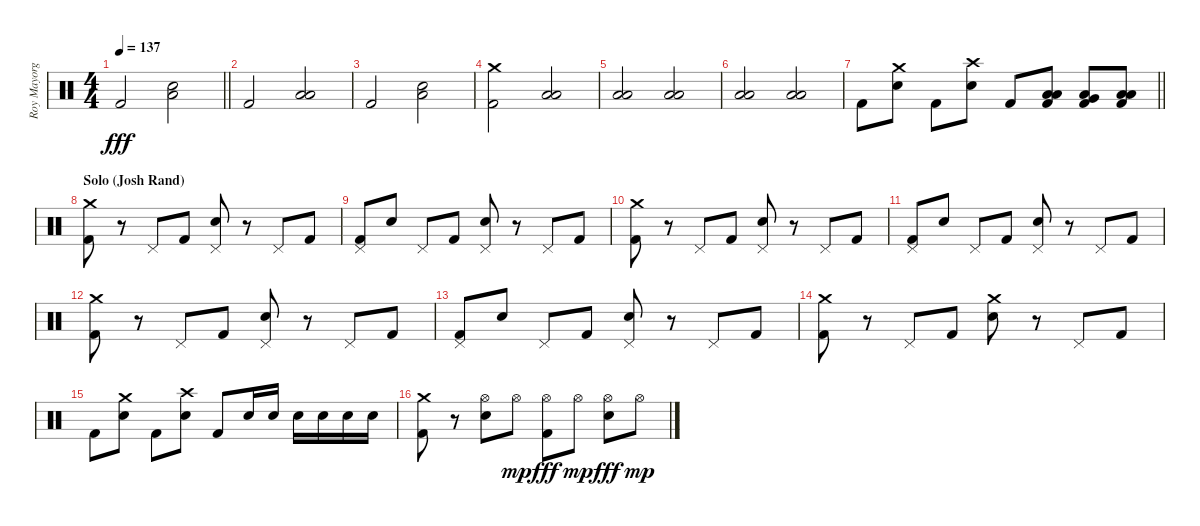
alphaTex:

\track ("Roy Mayorga (Drums)" "Roy Mayorg") {instrument percussion}
\staff {score}
\articulation defaults
\ts (4 4)
\tempo 137
\clef neutral
\barLineRight lightlight
\ks c "Kick (hit) 2".2{dy fff}
("Low Tom (hit)" "Electric Snare (hit)").2 |
"Kick (hit) 2".2 ("Low Tom (hit)" "Low Floor Tom (hit)").2 |
"Kick (hit) 2".2 ("Low Tom (hit)" "Electric Snare (hit)").2 |
("Crash medium (hit)" "Kick (hit) 2").2 ("Low Tom (hit)" "Low Floor Tom (hit)").2 |
("Low Tom (hit)" "Low Floor Tom (hit)").2 ("Low Tom (hit)" "Low Floor Tom (hit)").2 |
("Low Tom (hit)" "Low Floor Tom (hit)").2 ("Low Tom (hit)" "Low Floor Tom (hit)").2 |
\barLineRight lightlight "Kick (hit) 2".8
("Crash medium (hit)" "Electric Snare (hit)").8 "Kick (hit) 2".8 ("Crash high (hit)" "Electric Snare (hit)").8 "Kick (hit) 2".8 ("Low Tom (hit)" "Low Floor Tom (hit)" "Kick (hit) 2").8 ("Very Low Tom (hit)" "Low Floor Tom (hit)" "Kick (hit) 2").8 ("Low Floor Tom (hit)" "Low Floor Tom (hit)" "Kick (hit) 2").8 |
\section ("" "Solo (Josh Rand)")
("Crash medium (hit)" "Kick (hit) 2").8 r.8 "Pedal Hi-Hat (hit)".8 "Kick (hit) 2".8 ("Pedal Hi-Hat (hit)" "Electric Snare (hit)").8 r.8 "Pedal Hi-Hat (hit)".8 "Kick (hit) 2".8 |
("Pedal Hi-Hat (hit)" "Kick (hit) 2").8 "Electric Snare (hit)".8 "Pedal Hi-Hat (hit)".8 "Kick (hit) 2".8 ("Pedal Hi-Hat (hit)" "Electric Snare (hit)").8 r.8 "Pedal Hi-Hat (hit)".8 "Kick (hit) 2".8 |
("Crash medium (hit)" "Kick (hit) 2").8 r.8 "Pedal Hi-Hat (hit)".8 "Kick (hit) 2".8 ("Pedal Hi-Hat (hit)" "Electric Snare (hit)").8 r.8 "Pedal Hi-Hat (hit)".8 "Kick (hit) 2".8 |
("Pedal Hi-Hat (hit)" "Kick (hit) 2").8 "Electric Snare (hit)".8 "Pedal Hi-Hat (hit)".8 "Kick (hit) 2".8 ("Pedal Hi-Hat (hit)" "Electric Snare (hit)").8 r.8 "Pedal Hi-Hat (hit)".8 "Kick (hit) 2".8 |
("Crash medium (hit)" "Kick (hit) 2").8 r.8 "Pedal Hi-Hat (hit)".8 "Kick (hit) 2".8 ("Pedal Hi-Hat (hit)" "Electric Snare (hit)").8 r.8 "Pedal Hi-Hat (hit)".8 "Kick (hit) 2".8 |
("Pedal Hi-Hat (hit)" "Kick (hit) 2").8 "Electric Snare (hit)".8 "Pedal Hi-Hat (hit)".8 "Kick (hit) 2".8 ("Pedal Hi-Hat (hit)" "Electric Snare (hit)").8 r.8 "Pedal Hi-Hat (hit)".8 "Kick (hit) 2".8 |
("Crash medium (hit)" "Kick (hit) 2").8 r.8 "Pedal Hi-Hat (hit)".8 "Kick (hit) 2".8 ("Crash medium (hit)" "Electric Snare (hit)").8 r.8 "Pedal Hi-Hat (hit)".8 "Kick (hit) 2".8 |
"Kick (hit) 2".8 ("Crash medium (hit)" "Electric Snare (hit)").8 "Kick (hit) 2".8 ("Crash high (hit)" "Electric Snare (hit)").8 "Kick (hit) 2".8 "Electric Snare (hit)".16 "Electric Snare (hit)".16 "Electric Snare (hit)".16 "Electric Snare (hit)".16 "Electric Snare (hit)".16 "Electric Snare (hit)".16 |
("Crash medium (hit)" "Kick (hit) 2").8 r.8 ("Hi-Hat (open)" "Electric Snare (hit)").8 "Hi-Hat (open)".8{dy mp} ("Hi-Hat (open)" "Kick (hit) 2").8{dy fff} "Hi-Hat (open)".8{dy mp} ("Hi-Hat (open)" "Electric Snare (hit)").8{dy fff} "Hi-Hat (open)".8{dy mp}
